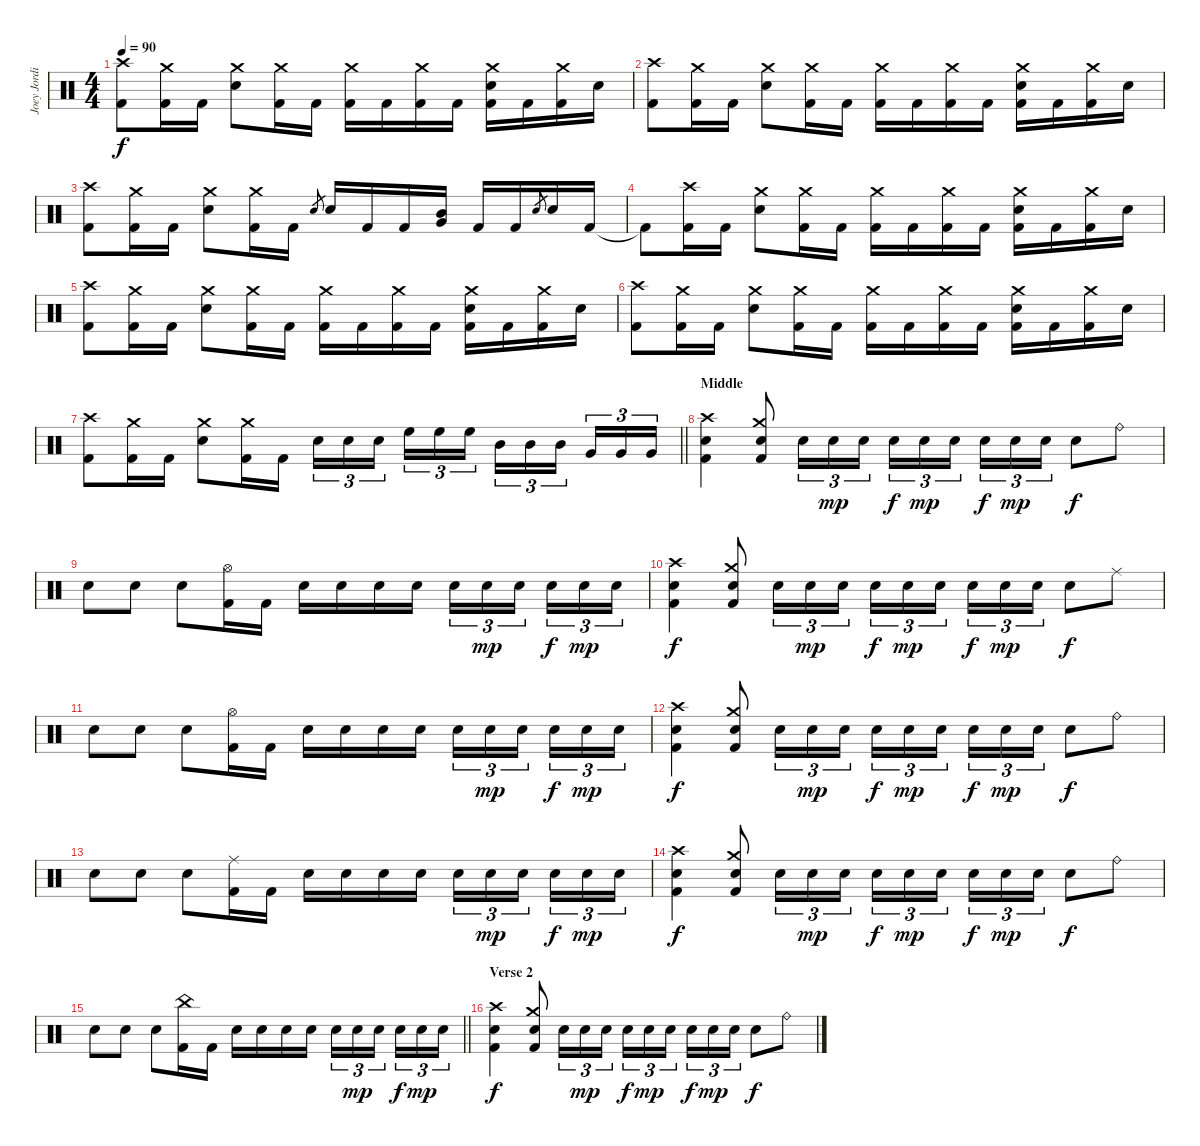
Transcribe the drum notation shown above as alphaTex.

\track ("Joey Jordison" "Joey Jordi") {instrument percussion}
\staff {score}
\articulation defaults
\ts (4 4)
\tempo 90
\clef neutral
\ks c
("Crash high (hit)" "Kick (hit) 2").8{dy f} ("Crash medium (hit)" "Kick (hit) 2").16 "Kick (hit) 2".16 ("Crash medium (hit)" "Electric Snare (hit)").8 ("Crash medium (hit)" "Kick (hit) 2").16 "Kick (hit) 2".16 ("Crash medium (hit)" "Kick (hit) 2").16 "Kick (hit) 2".16 ("Crash medium (hit)" "Kick (hit) 2").16 "Kick (hit) 2".16 ("Crash medium (hit)" "Electric Snare (hit)" "Kick (hit) 2").16 "Kick (hit) 2".16 ("Crash medium (hit)" "Kick (hit) 2").16 "Electric Snare (hit)".16 |
("Crash high (hit)" "Kick (hit) 2").8 ("Crash medium (hit)" "Kick (hit) 2").16 "Kick (hit) 2".16 ("Crash medium (hit)" "Electric Snare (hit)").8 ("Crash medium (hit)" "Kick (hit) 2").16 "Kick (hit) 2".16 ("Crash medium (hit)" "Kick (hit) 2").16 "Kick (hit) 2".16 ("Crash medium (hit)" "Kick (hit) 2").16 "Kick (hit) 2".16 ("Crash medium (hit)" "Electric Snare (hit)" "Kick (hit) 2").16 "Kick (hit) 2".16 ("Crash medium (hit)" "Kick (hit) 2").16 "Electric Snare (hit)".16 |
("Crash high (hit)" "Kick (hit) 2").8 ("Crash medium (hit)" "Kick (hit) 2").16 "Kick (hit) 2".16 ("Crash medium (hit)" "Electric Snare (hit)").8 ("Crash medium (hit)" "Kick (hit) 2").16 "Kick (hit) 2".16 "Electric Snare (hit)".8{gr} "Electric Snare (hit)".16 "Kick (hit) 2".16 "Kick (hit) 2".16 ("Mid Tom (hit)" "Very Low Tom (hit)").16 "Kick (hit) 2".16 "Kick (hit) 2".16 "Electric Snare (hit)".8{gr} "Electric Snare (hit)".16 "Kick (hit) 2".16 |
"Kick (hit) 2"{t}.8 ("Crash high (hit)" "Kick (hit) 2").16 "Kick (hit) 2".16 ("Crash medium (hit)" "Electric Snare (hit)").8 ("Crash medium (hit)" "Kick (hit) 2").16 "Kick (hit) 2".16 ("Crash medium (hit)" "Kick (hit) 2").16 "Kick (hit) 2".16 ("Crash medium (hit)" "Kick (hit) 2").16 "Kick (hit) 2".16 ("Crash medium (hit)" "Electric Snare (hit)" "Kick (hit) 2").16 "Kick (hit) 2".16 ("Crash medium (hit)" "Kick (hit) 2").16 "Electric Snare (hit)".16 |
("Crash high (hit)" "Kick (hit) 2").8 ("Crash medium (hit)" "Kick (hit) 2").16 "Kick (hit) 2".16 ("Crash medium (hit)" "Electric Snare (hit)").8 ("Crash medium (hit)" "Kick (hit) 2").16 "Kick (hit) 2".16 ("Crash medium (hit)" "Kick (hit) 2").16 "Kick (hit) 2".16 ("Crash medium (hit)" "Kick (hit) 2").16 "Kick (hit) 2".16 ("Crash medium (hit)" "Electric Snare (hit)" "Kick (hit) 2").16 "Kick (hit) 2".16 ("Crash medium (hit)" "Kick (hit) 2").16 "Electric Snare (hit)".16 |
("Crash high (hit)" "Kick (hit) 2").8 ("Crash medium (hit)" "Kick (hit) 2").16 "Kick (hit) 2".16 ("Crash medium (hit)" "Electric Snare (hit)").8 ("Crash medium (hit)" "Kick (hit) 2").16 "Kick (hit) 2".16 ("Crash medium (hit)" "Kick (hit) 2").16 "Kick (hit) 2".16 ("Crash medium (hit)" "Kick (hit) 2").16 "Kick (hit) 2".16 ("Crash medium (hit)" "Electric Snare (hit)" "Kick (hit) 2").16 "Kick (hit) 2".16 ("Crash medium (hit)" "Kick (hit) 2").16 "Electric Snare (hit)".16 |
\barLineRight lightlight
("Crash high (hit)" "Kick (hit) 2").8 ("Crash medium (hit)" "Kick (hit) 2").16 "Kick (hit) 2".16 ("Crash medium (hit)" "Electric Snare (hit)").8 ("Crash medium (hit)" "Kick (hit) 2").16 "Kick (hit) 2".16 "Electric Snare (hit)".16{tu (3 2)} "Electric Snare (hit)".16{tu (3 2)} "Electric Snare (hit)".16{tu (3 2) beam splitsecondary} "High Floor Tom (hit)".16{tu (3 2)} "High Floor Tom (hit)".16{tu (3 2)} "High Floor Tom (hit)".16{tu (3 2)} "Mid Tom (hit)".16{tu (3 2)} "Mid Tom (hit)".16{tu (3 2)} "Mid Tom (hit)".16{tu (3 2) beam splitsecondary} "Very Low Tom (hit)".16{tu (3 2)} "Very Low Tom (hit)".16{tu (3 2)} "Very Low Tom (hit)".16{tu (3 2)} |
\section ("" "Middle")
("Crash high (hit)" "Electric Snare (hit)" "Kick (hit) 2").4 ("Crash medium (hit)" "Electric Snare (hit)" "Kick (hit) 2").8 "Electric Snare (hit)".16{tu (3 2)} "Electric Snare (hit)".16{tu (3 2) dy mp} "Electric Snare (hit)".16{tu (3 2)} "Electric Snare (hit)".16{tu (3 2) dy f} "Electric Snare (hit)".16{tu (3 2) dy mp} "Electric Snare (hit)".16{tu (3 2) beam splitsecondary} "Electric Snare (hit)".16{tu (3 2) dy f} "Electric Snare (hit)".16{tu (3 2) dy mp} "Electric Snare (hit)".16{tu (3 2)} "Electric Snare (hit)".8{dy f} "Ride (bell)".8 |
"Electric Snare (hit)".8 "Electric Snare (hit)".8 "Electric Snare (hit)".8 ("Hi-Hat (open)" "Kick (hit) 2").16 "Kick (hit) 2".16 "Electric Snare (hit)".16 "Electric Snare (hit)".16 "Electric Snare (hit)".16 "Electric Snare (hit)".16 "Electric Snare (hit)".16{tu (3 2)} "Electric Snare (hit)".16{tu (3 2) dy mp} "Electric Snare (hit)".16{tu (3 2) beam splitsecondary} "Electric Snare (hit)".16{tu (3 2) dy f} "Electric Snare (hit)".16{tu (3 2) dy mp} "Electric Snare (hit)".16{tu (3 2)} |
("Crash high (hit)" "Electric Snare (hit)" "Kick (hit) 2").4{dy f} ("Crash medium (hit)" "Electric Snare (hit)" "Kick (hit) 2").8 "Electric Snare (hit)".16{tu (3 2)} "Electric Snare (hit)".16{tu (3 2) dy mp} "Electric Snare (hit)".16{tu (3 2)} "Electric Snare (hit)".16{tu (3 2) dy f} "Electric Snare (hit)".16{tu (3 2) dy mp} "Electric Snare (hit)".16{tu (3 2) beam splitsecondary} "Electric Snare (hit)".16{tu (3 2) dy f} "Electric Snare (hit)".16{tu (3 2) dy mp} "Electric Snare (hit)".16{tu (3 2)} "Electric Snare (hit)".8{dy f} "Ride (middle)".8 |
"Electric Snare (hit)".8 "Electric Snare (hit)".8 "Electric Snare (hit)".8 ("Hi-Hat (open)" "Kick (hit) 2").16 "Kick (hit) 2".16 "Electric Snare (hit)".16 "Electric Snare (hit)".16 "Electric Snare (hit)".16 "Electric Snare (hit)".16 "Electric Snare (hit)".16{tu (3 2)} "Electric Snare (hit)".16{tu (3 2) dy mp} "Electric Snare (hit)".16{tu (3 2) beam splitsecondary} "Electric Snare (hit)".16{tu (3 2) dy f} "Electric Snare (hit)".16{tu (3 2) dy mp} "Electric Snare (hit)".16{tu (3 2)} |
("Crash high (hit)" "Electric Snare (hit)" "Kick (hit) 2").4{dy f} ("Crash medium (hit)" "Electric Snare (hit)" "Kick (hit) 2").8 "Electric Snare (hit)".16{tu (3 2)} "Electric Snare (hit)".16{tu (3 2) dy mp} "Electric Snare (hit)".16{tu (3 2)} "Electric Snare (hit)".16{tu (3 2) dy f} "Electric Snare (hit)".16{tu (3 2) dy mp} "Electric Snare (hit)".16{tu (3 2) beam splitsecondary} "Electric Snare (hit)".16{tu (3 2) dy f} "Electric Snare (hit)".16{tu (3 2) dy mp} "Electric Snare (hit)".16{tu (3 2)} "Electric Snare (hit)".8{dy f} "Ride (bell)".8 |
"Electric Snare (hit)".8 "Electric Snare (hit)".8 "Electric Snare (hit)".8 ("Ride (middle)" "Kick (hit) 2").16 "Kick (hit) 2".16 "Electric Snare (hit)".16 "Electric Snare (hit)".16 "Electric Snare (hit)".16 "Electric Snare (hit)".16 "Electric Snare (hit)".16{tu (3 2)} "Electric Snare (hit)".16{tu (3 2) dy mp} "Electric Snare (hit)".16{tu (3 2) beam splitsecondary} "Electric Snare (hit)".16{tu (3 2) dy f} "Electric Snare (hit)".16{tu (3 2) dy mp} "Electric Snare (hit)".16{tu (3 2)} |
("Crash high (hit)" "Electric Snare (hit)" "Kick (hit) 2").4{dy f} ("Crash medium (hit)" "Electric Snare (hit)" "Kick (hit) 2").8 "Electric Snare (hit)".16{tu (3 2)} "Electric Snare (hit)".16{tu (3 2) dy mp} "Electric Snare (hit)".16{tu (3 2)} "Electric Snare (hit)".16{tu (3 2) dy f} "Electric Snare (hit)".16{tu (3 2) dy mp} "Electric Snare (hit)".16{tu (3 2) beam splitsecondary} "Electric Snare (hit)".16{tu (3 2) dy f} "Electric Snare (hit)".16{tu (3 2) dy mp} "Electric Snare (hit)".16{tu (3 2)} "Electric Snare (hit)".8{dy f} "Ride (bell)".8 |
\barLineRight lightlight "Electric Snare (hit)".8 "Electric Snare (hit)".8 "Electric Snare (hit)".8
("China (hit)" "Kick (hit) 2").16 "Kick (hit) 2".16 "Electric Snare (hit)".16 "Electric Snare (hit)".16 "Electric Snare (hit)".16 "Electric Snare (hit)".16 "Electric Snare (hit)".16{tu (3 2)} "Electric Snare (hit)".16{tu (3 2) dy mp} "Electric Snare (hit)".16{tu (3 2) beam splitsecondary} "Electric Snare (hit)".16{tu (3 2) dy f} "Electric Snare (hit)".16{tu (3 2) dy mp} "Electric Snare (hit)".16{tu (3 2)} |
\section ("" "Verse 2")
("Crash high (hit)" "Electric Snare (hit)" "Kick (hit) 2").4{dy f} ("Crash medium (hit)" "Electric Snare (hit)" "Kick (hit) 2").8 "Electric Snare (hit)".16{tu (3 2)} "Electric Snare (hit)".16{tu (3 2) dy mp} "Electric Snare (hit)".16{tu (3 2)} "Electric Snare (hit)".16{tu (3 2) dy f} "Electric Snare (hit)".16{tu (3 2) dy mp} "Electric Snare (hit)".16{tu (3 2) beam splitsecondary} "Electric Snare (hit)".16{tu (3 2) dy f} "Electric Snare (hit)".16{tu (3 2) dy mp} "Electric Snare (hit)".16{tu (3 2)} "Electric Snare (hit)".8{dy f} "Ride (bell)".8
